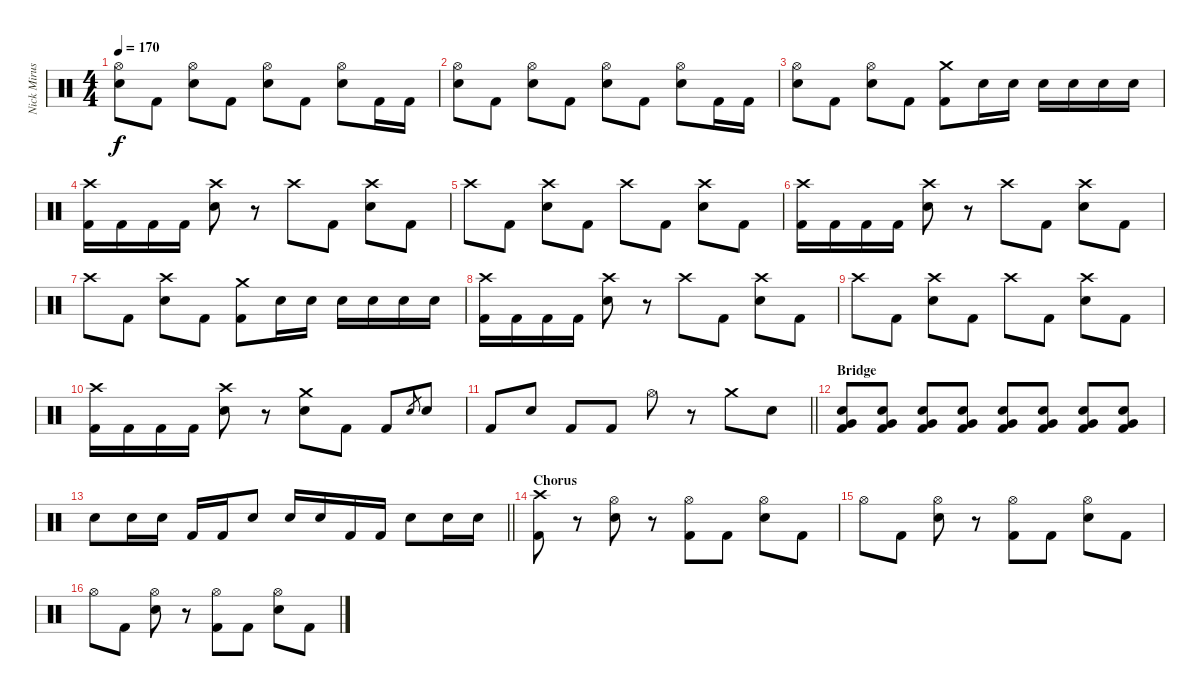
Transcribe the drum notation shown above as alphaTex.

\track ("Nick Mirusso - Drums" "Nick Mirus") {instrument percussion}
\staff {score}
\articulation defaults
\ts (4 4)
\tempo 170
\clef neutral
\ks c
("Hi-Hat (open)" "Electric Snare (hit)").8{dy f} "Kick (hit) 2".8 ("Hi-Hat (open)" "Electric Snare (hit)").8 "Kick (hit) 2".8 ("Hi-Hat (open)" "Electric Snare (hit)").8 "Kick (hit) 2".8 ("Hi-Hat (open)" "Electric Snare (hit)").8 "Kick (hit) 2".16 "Kick (hit) 2".16 |
("Hi-Hat (open)" "Electric Snare (hit)").8 "Kick (hit) 2".8 ("Hi-Hat (open)" "Electric Snare (hit)").8 "Kick (hit) 2".8 ("Hi-Hat (open)" "Electric Snare (hit)").8 "Kick (hit) 2".8 ("Hi-Hat (open)" "Electric Snare (hit)").8 "Kick (hit) 2".16 "Kick (hit) 2".16 |
("Hi-Hat (open)" "Electric Snare (hit)").8 "Kick (hit) 2".8 ("Hi-Hat (open)" "Electric Snare (hit)").8 "Kick (hit) 2".8 ("Crash medium (hit)" "Kick (hit) 2").8 "Electric Snare (hit)".16 "Electric Snare (hit)".16 "Electric Snare (hit)".16 "Electric Snare (hit)".16 "Electric Snare (hit)".16 "Electric Snare (hit)".16 |
("Crash high (hit)" "Kick (hit) 2").16 "Kick (hit) 2".16 "Kick (hit) 2".16 "Kick (hit) 2".16 ("Crash high (hit)" "Electric Snare (hit)").8 r.8 "Crash high (hit)".8 "Kick (hit) 2".8 ("Crash high (hit)" "Electric Snare (hit)").8 "Kick (hit) 2".8 |
"Crash high (hit)".8 "Kick (hit) 2".8 ("Crash high (hit)" "Electric Snare (hit)").8 "Kick (hit) 2".8 "Crash high (hit)".8 "Kick (hit) 2".8 ("Crash high (hit)" "Electric Snare (hit)").8 "Kick (hit) 2".8 |
("Crash high (hit)" "Kick (hit) 2").16 "Kick (hit) 2".16 "Kick (hit) 2".16 "Kick (hit) 2".16 ("Crash high (hit)" "Electric Snare (hit)").8 r.8 "Crash high (hit)".8 "Kick (hit) 2".8 ("Crash high (hit)" "Electric Snare (hit)").8 "Kick (hit) 2".8 |
"Crash high (hit)".8 "Kick (hit) 2".8 ("Crash high (hit)" "Electric Snare (hit)").8 "Kick (hit) 2".8 ("Crash medium (hit)" "Kick (hit) 2").8 "Electric Snare (hit)".16 "Electric Snare (hit)".16 "Electric Snare (hit)".16 "Electric Snare (hit)".16 "Electric Snare (hit)".16 "Electric Snare (hit)".16 |
("Crash high (hit)" "Kick (hit) 2").16 "Kick (hit) 2".16 "Kick (hit) 2".16 "Kick (hit) 2".16 ("Crash high (hit)" "Electric Snare (hit)").8 r.8 "Crash high (hit)".8 "Kick (hit) 2".8 ("Crash high (hit)" "Electric Snare (hit)").8 "Kick (hit) 2".8 |
"Crash high (hit)".8 "Kick (hit) 2".8 ("Crash high (hit)" "Electric Snare (hit)").8 "Kick (hit) 2".8 "Crash high (hit)".8 "Kick (hit) 2".8 ("Crash high (hit)" "Electric Snare (hit)").8 "Kick (hit) 2".8 |
("Crash high (hit)" "Kick (hit) 2").16 "Kick (hit) 2".16 "Kick (hit) 2".16 "Kick (hit) 2".16 ("Crash high (hit)" "Electric Snare (hit)").8 r.8 ("Crash medium (hit)" "Electric Snare (hit)").8 "Kick (hit) 2".8 "Kick (hit) 2".8 "Electric Snare (hit)".8{gr} "Electric Snare (hit)".8 |
\barLineRight lightlight "Kick (hit) 2".8 "Electric Snare (hit)".8 "Kick (hit) 2".8 "Kick (hit) 2".8 "Hi-Hat (open)".8
r.8 "Crash medium (hit)".8 "Electric Snare (hit)".8 |
\section ("" "Bridge")
("Very Low Tom (hit)" "Electric Snare (hit)" "Kick (hit) 2").8 ("Very Low Tom (hit)" "Electric Snare (hit)" "Kick (hit) 2").8 ("Very Low Tom (hit)" "Electric Snare (hit)" "Kick (hit) 2").8 ("Very Low Tom (hit)" "Electric Snare (hit)" "Kick (hit) 2").8 ("Very Low Tom (hit)" "Electric Snare (hit)" "Kick (hit) 2").8 ("Very Low Tom (hit)" "Electric Snare (hit)" "Kick (hit) 2").8 ("Very Low Tom (hit)" "Electric Snare (hit)" "Kick (hit) 2").8 ("Very Low Tom (hit)" "Electric Snare (hit)" "Kick (hit) 2").8 |
\barLineRight lightlight "Electric Snare (hit)".8 "Electric Snare (hit)".16 "Electric Snare (hit)".16 "Kick (hit) 2".16 "Kick (hit) 2".16 "Electric Snare (hit)".8 "Electric Snare (hit)".16 "Electric Snare (hit)".16 "Kick (hit) 2".16 "Kick (hit) 2".16 "Electric Snare (hit)".8 "Electric Snare (hit)".16 "Electric Snare (hit)".16
|
\section ("" "Chorus")
("Crash high (hit)" "Kick (hit) 2").8 r.8 ("Hi-Hat (open)" "Electric Snare (hit)").8 r.8 ("Hi-Hat (open)" "Kick (hit) 2").8 "Kick (hit) 2".8 ("Hi-Hat (open)" "Electric Snare (hit)").8 "Kick (hit) 2".8 |
"Hi-Hat (open)".8 "Kick (hit) 2".8 ("Hi-Hat (open)" "Electric Snare (hit)").8 r.8 ("Hi-Hat (open)" "Kick (hit) 2").8 "Kick (hit) 2".8 ("Hi-Hat (open)" "Electric Snare (hit)").8 "Kick (hit) 2".8 |
"Hi-Hat (open)".8 "Kick (hit) 2".8 ("Hi-Hat (open)" "Electric Snare (hit)").8 r.8 ("Hi-Hat (open)" "Kick (hit) 2").8 "Kick (hit) 2".8 ("Hi-Hat (open)" "Electric Snare (hit)").8 "Kick (hit) 2".8
